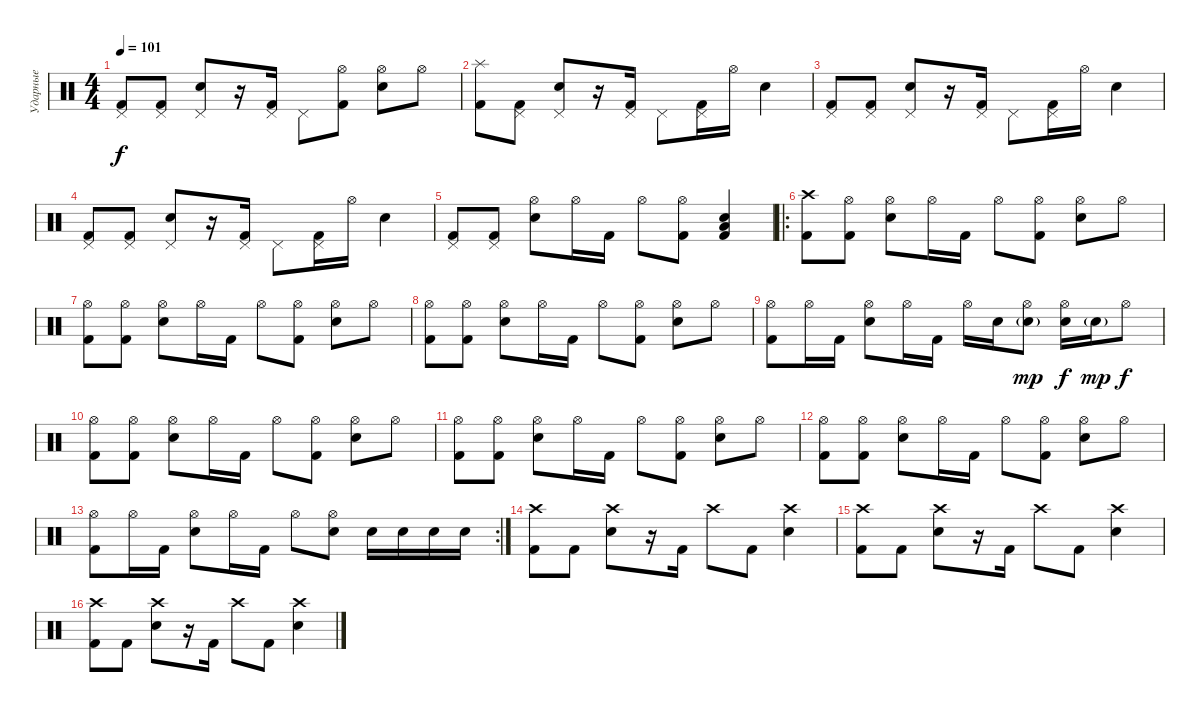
\track ("Ударные" "Ударные") {instrument percussion}
\staff {score}
\articulation defaults
\ts (4 4)
\tempo 101
\clef neutral
\ks c
("Pedal Hi-Hat (hit)" "Kick (hit) 2").8{dy f} ("Pedal Hi-Hat (hit)" "Kick (hit) 2").8 ("Pedal Hi-Hat (hit)" "Snare (hit) 2").8 r.16 ("Pedal Hi-Hat (hit)" "Kick (hit) 2").16 "Pedal Hi-Hat (hit)".8 ("Hi-Hat (open)" "Kick (hit) 2").8 ("Hi-Hat (open)" "Snare (hit) 2").8 "Hi-Hat (open)".8 |
("Splash (hit)" "Kick (hit) 2").8 ("Pedal Hi-Hat (hit)" "Kick (hit) 2").8 ("Pedal Hi-Hat (hit)" "Snare (hit) 2").8 r.16 ("Pedal Hi-Hat (hit)" "Kick (hit) 2").16 "Pedal Hi-Hat (hit)".8 ("Pedal Hi-Hat (hit)" "Kick (hit) 2").16 "Hi-Hat (open)".16 "Snare (hit) 2".4 |
("Pedal Hi-Hat (hit)" "Kick (hit) 2").8 ("Pedal Hi-Hat (hit)" "Kick (hit) 2").8 ("Pedal Hi-Hat (hit)" "Snare (hit) 2").8 r.16 ("Pedal Hi-Hat (hit)" "Kick (hit) 2").16 "Pedal Hi-Hat (hit)".8 ("Pedal Hi-Hat (hit)" "Kick (hit) 2").16 "Hi-Hat (open)".16 "Snare (hit) 2".4 |
("Pedal Hi-Hat (hit)" "Kick (hit) 2").8 ("Pedal Hi-Hat (hit)" "Kick (hit) 2").8 ("Pedal Hi-Hat (hit)" "Snare (hit) 2").8 r.16 ("Pedal Hi-Hat (hit)" "Kick (hit) 2").16 "Pedal Hi-Hat (hit)".8 ("Pedal Hi-Hat (hit)" "Kick (hit) 2").16 "Hi-Hat (open)".16 "Snare (hit) 2".4 |
("Pedal Hi-Hat (hit)" "Kick (hit) 2").8 ("Pedal Hi-Hat (hit)" "Kick (hit) 2").8 ("Hi-Hat (open)" "Snare (hit) 2").8 "Hi-Hat (open)".16 "Kick (hit) 2".16 "Hi-Hat (open)".8 ("Hi-Hat (open)" "Kick (hit) 2").8 ("Low Tom (hit)" "Snare (hit) 2" "Kick (hit) 2").4 |
\ro
("Crash high (hit)" "Kick (hit) 2").8 ("Hi-Hat (open)" "Kick (hit) 2").8 ("Hi-Hat (open)" "Snare (hit) 2").8 "Hi-Hat (open)".16 "Kick (hit) 2".16 "Hi-Hat (open)".8 ("Hi-Hat (open)" "Kick (hit) 2").8 ("Hi-Hat (open)" "Snare (hit) 2").8 "Hi-Hat (open)".8 |
("Hi-Hat (open)" "Kick (hit) 2").8 ("Hi-Hat (open)" "Kick (hit) 2").8 ("Hi-Hat (open)" "Snare (hit) 2").8 "Hi-Hat (open)".16 "Kick (hit) 2".16 "Hi-Hat (open)".8 ("Hi-Hat (open)" "Kick (hit) 2").8 ("Hi-Hat (open)" "Snare (hit) 2").8 "Hi-Hat (open)".8 |
("Hi-Hat (open)" "Kick (hit) 2").8 ("Hi-Hat (open)" "Kick (hit) 2").8 ("Hi-Hat (open)" "Snare (hit) 2").8 "Hi-Hat (open)".16 "Kick (hit) 2".16 "Hi-Hat (open)".8 ("Hi-Hat (open)" "Kick (hit) 2").8 ("Hi-Hat (open)" "Snare (hit) 2").8 "Hi-Hat (open)".8 |
("Hi-Hat (open)" "Kick (hit) 2").8 "Hi-Hat (open)".16 "Kick (hit) 2".16 ("Hi-Hat (open)" "Snare (hit) 2").8 "Hi-Hat (open)".16 "Kick (hit) 2".16 "Hi-Hat (open)".16 "Snare (hit) 2".16 ("Hi-Hat (open)" "Snare (hit) 2"{g}).8{dy mp} ("Hi-Hat (open)" "Snare (hit) 2").16{dy f} "Snare (hit) 2"{g}.16{dy mp} "Hi-Hat (open)".8{dy f} |
("Hi-Hat (open)" "Kick (hit) 2").8 ("Hi-Hat (open)" "Kick (hit) 2").8 ("Hi-Hat (open)" "Snare (hit) 2").8 "Hi-Hat (open)".16 "Kick (hit) 2".16 "Hi-Hat (open)".8 ("Hi-Hat (open)" "Kick (hit) 2").8 ("Hi-Hat (open)" "Snare (hit) 2").8 "Hi-Hat (open)".8 |
("Hi-Hat (open)" "Kick (hit) 2").8 ("Hi-Hat (open)" "Kick (hit) 2").8 ("Hi-Hat (open)" "Snare (hit) 2").8 "Hi-Hat (open)".16 "Kick (hit) 2".16 "Hi-Hat (open)".8 ("Hi-Hat (open)" "Kick (hit) 2").8 ("Hi-Hat (open)" "Snare (hit) 2").8 "Hi-Hat (open)".8 |
("Hi-Hat (open)" "Kick (hit) 2").8 ("Hi-Hat (open)" "Kick (hit) 2").8 ("Hi-Hat (open)" "Snare (hit) 2").8 "Hi-Hat (open)".16 "Kick (hit) 2".16 "Hi-Hat (open)".8 ("Hi-Hat (open)" "Kick (hit) 2").8 ("Hi-Hat (open)" "Snare (hit) 2").8 "Hi-Hat (open)".8 |
\rc 2
("Hi-Hat (open)" "Kick (hit) 2").8 "Hi-Hat (open)".16 "Kick (hit) 2".16 ("Hi-Hat (open)" "Snare (hit) 2").8 "Hi-Hat (open)".16 "Kick (hit) 2".16 "Hi-Hat (open)".8 ("Hi-Hat (open)" "Snare (hit) 2").8 "Snare (hit) 2".16 "Snare (hit) 2".16 "Snare (hit) 2".16 "Snare (hit) 2".16 |
("Crash high (hit)" "Kick (hit) 2").8 "Kick (hit) 2".8 ("Crash high (hit)" "Snare (hit) 2").8 r.16 "Kick (hit) 2".16 "Crash high (hit)".8 "Kick (hit) 2".8 ("Crash high (hit)" "Snare (hit) 2").4 |
("Crash high (hit)" "Kick (hit) 2").8 "Kick (hit) 2".8 ("Crash high (hit)" "Snare (hit) 2").8 r.16 "Kick (hit) 2".16 "Crash high (hit)".8 "Kick (hit) 2".8 ("Crash high (hit)" "Snare (hit) 2").4 |
("Crash high (hit)" "Kick (hit) 2").8 "Kick (hit) 2".8 ("Crash high (hit)" "Snare (hit) 2").8 r.16 "Kick (hit) 2".16 "Crash high (hit)".8 "Kick (hit) 2".8 ("Crash high (hit)" "Snare (hit) 2").4
